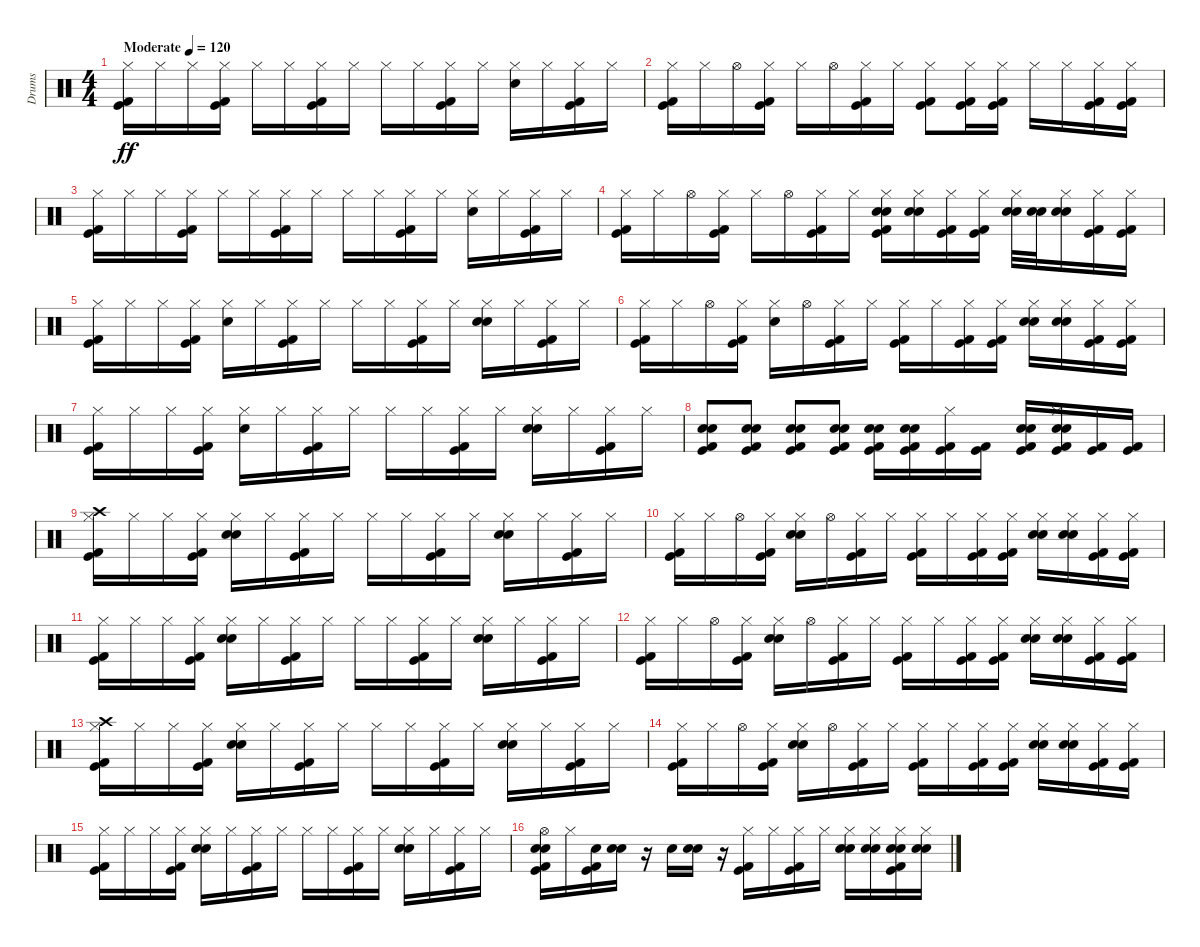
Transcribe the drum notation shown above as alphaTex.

\track ("Drums" "Drums") {instrument percussion}
\staff {score}
\articulation defaults
\ts (4 4)
\tempo (120 "Moderate")
\clef neutral
\ks c
("Kick (hit)" "Kick (hit) 2" "Hi-Hat (closed)").16{dy ff} "Hi-Hat (closed)".16 "Hi-Hat (closed)".16 ("Kick (hit)" "Kick (hit) 2" "Hi-Hat (closed)").16 "Hi-Hat (closed)".16 "Hi-Hat (closed)".16 ("Kick (hit)" "Kick (hit) 2" "Hi-Hat (closed)").16 "Hi-Hat (closed)".16 "Hi-Hat (closed)".16 "Hi-Hat (closed)".16 ("Kick (hit)" "Kick (hit) 2" "Hi-Hat (closed)").16 "Hi-Hat (closed)".16 ("Hand Clap (hit)" "Hi-Hat (closed)").16 "Hi-Hat (closed)".16 ("Kick (hit)" "Kick (hit) 2" "Hi-Hat (closed)").16 "Hi-Hat (closed)".16 |
("Kick (hit)" "Kick (hit) 2" "Hi-Hat (closed)").16 "Hi-Hat (closed)".16 "Hi-Hat (open)".16 ("Kick (hit)" "Kick (hit) 2" "Hi-Hat (closed)").16 "Hi-Hat (closed)".16 "Hi-Hat (open)".16 ("Kick (hit)" "Kick (hit) 2" "Hi-Hat (closed)").16 "Hi-Hat (closed)".16 ("Kick (hit)" "Kick (hit) 2" "Hi-Hat (closed)").8 ("Kick (hit)" "Kick (hit) 2" "Hi-Hat (closed)").16 ("Kick (hit)" "Kick (hit) 2" "Hi-Hat (closed)").16 "Hi-Hat (closed)".16 "Hi-Hat (closed)".16 ("Kick (hit)" "Kick (hit) 2" "Hi-Hat (closed)").16 ("Kick (hit)" "Kick (hit) 2" "Hi-Hat (closed)").16 |
("Kick (hit)" "Kick (hit) 2" "Hi-Hat (closed)").16 "Hi-Hat (closed)".16 "Hi-Hat (closed)".16 ("Kick (hit)" "Kick (hit) 2" "Hi-Hat (closed)").16 "Hi-Hat (closed)".16 "Hi-Hat (closed)".16 ("Kick (hit)" "Kick (hit) 2" "Hi-Hat (closed)").16 "Hi-Hat (closed)".16 "Hi-Hat (closed)".16 "Hi-Hat (closed)".16 ("Kick (hit)" "Kick (hit) 2" "Hi-Hat (closed)").16 "Hi-Hat (closed)".16 ("Hand Clap (hit)" "Hi-Hat (closed)").16 "Hi-Hat (closed)".16 ("Kick (hit)" "Kick (hit) 2" "Hi-Hat (closed)").16 "Hi-Hat (closed)".16 |
("Kick (hit)" "Kick (hit) 2" "Hi-Hat (closed)").16 "Hi-Hat (closed)".16 "Hi-Hat (open)".16 ("Kick (hit)" "Kick (hit) 2" "Hi-Hat (closed)").16 "Hi-Hat (closed)".16 "Hi-Hat (open)".16 ("Kick (hit)" "Kick (hit) 2" "Hi-Hat (closed)").16 "Hi-Hat (closed)".16 ("Kick (hit)" "Kick (hit) 2" "Snare (hit) 2" "Hand Clap (hit)" "Hi-Hat (closed)").16 ("Snare (hit) 2" "Hand Clap (hit)" "Hi-Hat (closed)").16 ("Kick (hit)" "Kick (hit) 2" "Hi-Hat (closed)").16 ("Kick (hit)" "Kick (hit) 2" "Hi-Hat (closed)").16 ("Snare (hit) 2" "Hand Clap (hit)" "Hi-Hat (closed)").32 ("Snare (hit) 2" "Hand Clap (hit)").32 ("Snare (hit) 2" "Hand Clap (hit)" "Hi-Hat (closed)").16 ("Kick (hit)" "Kick (hit) 2" "Hi-Hat (closed)").16 ("Kick (hit)" "Kick (hit) 2" "Hi-Hat (closed)").16 |
("Kick (hit)" "Kick (hit) 2" "Hi-Hat (closed)").16 "Hi-Hat (closed)".16 "Hi-Hat (closed)".16 ("Kick (hit)" "Kick (hit) 2" "Hi-Hat (closed)").16 ("Hand Clap (hit)" "Hi-Hat (closed)").16 "Hi-Hat (closed)".16 ("Kick (hit)" "Kick (hit) 2" "Hi-Hat (closed)").16 "Hi-Hat (closed)".16 "Hi-Hat (closed)".16 "Hi-Hat (closed)".16 ("Kick (hit)" "Kick (hit) 2" "Hi-Hat (closed)").16 "Hi-Hat (closed)".16 ("Snare (hit) 2" "Hand Clap (hit)" "Hi-Hat (closed)").16 "Hi-Hat (closed)".16 ("Kick (hit)" "Kick (hit) 2" "Hi-Hat (closed)").16 "Hi-Hat (closed)".16 |
("Kick (hit)" "Kick (hit) 2" "Hi-Hat (closed)").16 "Hi-Hat (closed)".16 "Hi-Hat (open)".16 ("Kick (hit)" "Kick (hit) 2" "Hi-Hat (closed)").16 ("Hand Clap (hit)" "Hi-Hat (closed)").16 "Hi-Hat (open)".16 ("Kick (hit)" "Kick (hit) 2" "Hi-Hat (closed)").16 "Hi-Hat (closed)".16 ("Kick (hit)" "Kick (hit) 2" "Hi-Hat (closed)").16 "Hi-Hat (closed)".16 ("Kick (hit)" "Kick (hit) 2" "Hi-Hat (closed)").16 ("Kick (hit)" "Kick (hit) 2" "Hi-Hat (closed)").16 ("Snare (hit) 2" "Hand Clap (hit)" "Hi-Hat (closed)").16 ("Snare (hit) 2" "Hand Clap (hit)" "Hi-Hat (closed)").16 ("Kick (hit)" "Kick (hit) 2" "Hi-Hat (closed)").16 ("Kick (hit)" "Kick (hit) 2" "Hi-Hat (closed)").16 |
("Kick (hit)" "Kick (hit) 2" "Hi-Hat (closed)").16 "Hi-Hat (closed)".16 "Hi-Hat (closed)".16 ("Kick (hit)" "Kick (hit) 2" "Hi-Hat (closed)").16 ("Hand Clap (hit)" "Hi-Hat (closed)").16 "Hi-Hat (closed)".16 ("Kick (hit)" "Kick (hit) 2" "Hi-Hat (closed)").16 "Hi-Hat (closed)".16 "Hi-Hat (closed)".16 "Hi-Hat (closed)".16 ("Kick (hit)" "Kick (hit) 2" "Hi-Hat (closed)").16 "Hi-Hat (closed)".16 ("Snare (hit) 2" "Hand Clap (hit)" "Hi-Hat (closed)").16 "Hi-Hat (closed)".16 ("Kick (hit)" "Kick (hit) 2" "Hi-Hat (closed)").16 "Hi-Hat (closed)".16 |
("Kick (hit)" "Kick (hit) 2" "Snare (hit) 2" "Hand Clap (hit)").8 ("Kick (hit)" "Kick (hit) 2" "Snare (hit) 2" "Hand Clap (hit)").8 ("Kick (hit)" "Kick (hit) 2" "Snare (hit) 2" "Hand Clap (hit)").8 ("Kick (hit)" "Kick (hit) 2" "Snare (hit) 2" "Hand Clap (hit)").8 ("Kick (hit)" "Kick (hit) 2" "Snare (hit) 2" "Hand Clap (hit)").16 ("Kick (hit)" "Kick (hit) 2" "Snare (hit) 2" "Hand Clap (hit)").16 ("Kick (hit)" "Kick (hit) 2" "Hi-Hat (closed)").16 ("Kick (hit)" "Kick (hit) 2").16 ("Kick (hit)" "Kick (hit) 2" "Snare (hit) 2" "Hand Clap (hit)").16 ("Kick (hit)" "Kick (hit) 2" "Snare (hit) 2" "Hand Clap (hit)" "Hi-Hat (closed)").16 ("Kick (hit)" "Kick (hit) 2").16 ("Kick (hit)" "Kick (hit) 2").16 |
("Kick (hit)" "Kick (hit) 2" "Hi-Hat (closed)" "Crash high (hit)").16 "Hi-Hat (closed)".16 "Hi-Hat (closed)".16 ("Kick (hit)" "Kick (hit) 2" "Hi-Hat (closed)").16 ("Snare (hit) 2" "Hand Clap (hit)" "Hi-Hat (closed)").16 "Hi-Hat (closed)".16 ("Kick (hit)" "Kick (hit) 2" "Hi-Hat (closed)").16 "Hi-Hat (closed)".16 "Hi-Hat (closed)".16 "Hi-Hat (closed)".16 ("Kick (hit)" "Kick (hit) 2" "Hi-Hat (closed)").16 "Hi-Hat (closed)".16 ("Snare (hit) 2" "Hand Clap (hit)" "Hi-Hat (closed)").16 "Hi-Hat (closed)".16 ("Kick (hit)" "Kick (hit) 2" "Hi-Hat (closed)").16 "Hi-Hat (closed)".16 |
("Kick (hit)" "Kick (hit) 2" "Hi-Hat (closed)").16 "Hi-Hat (closed)".16 "Hi-Hat (open)".16 ("Kick (hit)" "Kick (hit) 2" "Hi-Hat (closed)").16 ("Snare (hit) 2" "Hand Clap (hit)" "Hi-Hat (closed)").16 "Hi-Hat (open)".16 ("Kick (hit)" "Kick (hit) 2" "Hi-Hat (closed)").16 "Hi-Hat (closed)".16 ("Kick (hit)" "Kick (hit) 2" "Hi-Hat (closed)").16 "Hi-Hat (closed)".16 ("Kick (hit)" "Kick (hit) 2" "Hi-Hat (closed)").16 ("Kick (hit)" "Kick (hit) 2" "Hi-Hat (closed)").16 ("Snare (hit) 2" "Hand Clap (hit)" "Hi-Hat (closed)").16 ("Snare (hit) 2" "Hand Clap (hit)" "Hi-Hat (closed)").16 ("Kick (hit)" "Kick (hit) 2" "Hi-Hat (closed)").16 ("Kick (hit)" "Kick (hit) 2" "Hi-Hat (closed)").16 |
("Kick (hit)" "Kick (hit) 2" "Hi-Hat (closed)").16 "Hi-Hat (closed)".16 "Hi-Hat (closed)".16 ("Kick (hit)" "Kick (hit) 2" "Hi-Hat (closed)").16 ("Snare (hit) 2" "Hand Clap (hit)" "Hi-Hat (closed)").16 "Hi-Hat (closed)".16 ("Kick (hit)" "Kick (hit) 2" "Hi-Hat (closed)").16 "Hi-Hat (closed)".16 "Hi-Hat (closed)".16 "Hi-Hat (closed)".16 ("Kick (hit)" "Kick (hit) 2" "Hi-Hat (closed)").16 "Hi-Hat (closed)".16 ("Snare (hit) 2" "Hand Clap (hit)" "Hi-Hat (closed)").16 "Hi-Hat (closed)".16 ("Kick (hit)" "Kick (hit) 2" "Hi-Hat (closed)").16 "Hi-Hat (closed)".16 |
("Kick (hit)" "Kick (hit) 2" "Hi-Hat (closed)").16 "Hi-Hat (closed)".16 "Hi-Hat (open)".16 ("Kick (hit)" "Kick (hit) 2" "Hi-Hat (closed)").16 ("Snare (hit) 2" "Hand Clap (hit)" "Hi-Hat (closed)").16 "Hi-Hat (open)".16 ("Kick (hit)" "Kick (hit) 2" "Hi-Hat (closed)").16 "Hi-Hat (closed)".16 ("Kick (hit)" "Kick (hit) 2" "Hi-Hat (closed)").16 "Hi-Hat (closed)".16 ("Kick (hit)" "Kick (hit) 2" "Hi-Hat (closed)").16 ("Kick (hit)" "Kick (hit) 2" "Hi-Hat (closed)").16 ("Snare (hit) 2" "Hand Clap (hit)" "Hi-Hat (closed)").16 ("Snare (hit) 2" "Hand Clap (hit)" "Hi-Hat (closed)").16 ("Kick (hit)" "Kick (hit) 2" "Hi-Hat (closed)").16 ("Kick (hit)" "Kick (hit) 2" "Hi-Hat (closed)").16 |
("Kick (hit)" "Kick (hit) 2" "Hi-Hat (closed)" "Crash high (hit)").16 "Hi-Hat (closed)".16 "Hi-Hat (closed)".16 ("Kick (hit)" "Kick (hit) 2" "Hi-Hat (closed)").16 ("Snare (hit) 2" "Hand Clap (hit)" "Hi-Hat (closed)").16 "Hi-Hat (closed)".16 ("Kick (hit)" "Kick (hit) 2" "Hi-Hat (closed)").16 "Hi-Hat (closed)".16 "Hi-Hat (closed)".16 "Hi-Hat (closed)".16 ("Kick (hit)" "Kick (hit) 2" "Hi-Hat (closed)").16 "Hi-Hat (closed)".16 ("Snare (hit) 2" "Hand Clap (hit)" "Hi-Hat (closed)").16 "Hi-Hat (closed)".16 ("Kick (hit)" "Kick (hit) 2" "Hi-Hat (closed)").16 "Hi-Hat (closed)".16 |
("Kick (hit)" "Kick (hit) 2" "Hi-Hat (closed)").16 "Hi-Hat (closed)".16 "Hi-Hat (open)".16 ("Kick (hit)" "Kick (hit) 2" "Hi-Hat (closed)").16 ("Snare (hit) 2" "Hand Clap (hit)" "Hi-Hat (closed)").16 "Hi-Hat (open)".16 ("Kick (hit)" "Kick (hit) 2" "Hi-Hat (closed)").16 "Hi-Hat (closed)".16 ("Kick (hit)" "Kick (hit) 2" "Hi-Hat (closed)").16 "Hi-Hat (closed)".16 ("Kick (hit)" "Kick (hit) 2" "Hi-Hat (closed)").16 ("Kick (hit)" "Kick (hit) 2" "Hi-Hat (closed)").16 ("Snare (hit) 2" "Hand Clap (hit)" "Hi-Hat (closed)").16 ("Snare (hit) 2" "Hand Clap (hit)" "Hi-Hat (closed)").16 ("Kick (hit)" "Kick (hit) 2" "Hi-Hat (closed)").16 ("Kick (hit)" "Kick (hit) 2" "Hi-Hat (closed)").16 |
("Kick (hit)" "Kick (hit) 2" "Hi-Hat (closed)").16 "Hi-Hat (closed)".16 "Hi-Hat (closed)".16 ("Kick (hit)" "Kick (hit) 2" "Hi-Hat (closed)").16 ("Snare (hit) 2" "Hand Clap (hit)" "Hi-Hat (closed)").16 "Hi-Hat (closed)".16 ("Kick (hit)" "Kick (hit) 2" "Hi-Hat (closed)").16 "Hi-Hat (closed)".16 "Hi-Hat (closed)".16 "Hi-Hat (closed)".16 ("Kick (hit)" "Kick (hit) 2" "Hi-Hat (closed)").16 "Hi-Hat (closed)".16 ("Snare (hit) 2" "Hand Clap (hit)" "Hi-Hat (closed)").16 "Hi-Hat (closed)".16 ("Kick (hit)" "Kick (hit) 2" "Hi-Hat (closed)").16 "Hi-Hat (closed)".16 |
("Kick (hit)" "Kick (hit) 2" "Snare (hit) 2" "Hand Clap (hit)" "Hi-Hat (open)").16 "Hi-Hat (closed)".16 ("Kick (hit)" "Kick (hit) 2" "Hand Clap (hit)").16 ("Snare (hit) 2" "Hand Clap (hit)").16 r.16 "Hand Clap (hit)".16 ("Snare (hit) 2" "Hand Clap (hit)").16 r.16 ("Kick (hit)" "Kick (hit) 2" "Hi-Hat (closed)").16 "Hi-Hat (closed)".16 ("Kick (hit)" "Kick (hit) 2" "Hi-Hat (closed)").16 "Hi-Hat (closed)".16 ("Snare (hit) 2" "Hand Clap (hit)" "Hi-Hat (closed)").16 ("Snare (hit) 2" "Hand Clap (hit)" "Hi-Hat (closed)").16 ("Kick (hit)" "Kick (hit) 2" "Snare (hit) 2" "Hand Clap (hit)" "Hi-Hat (closed)").16 ("Snare (hit) 2" "Hand Clap (hit)" "Hi-Hat (closed)").16
